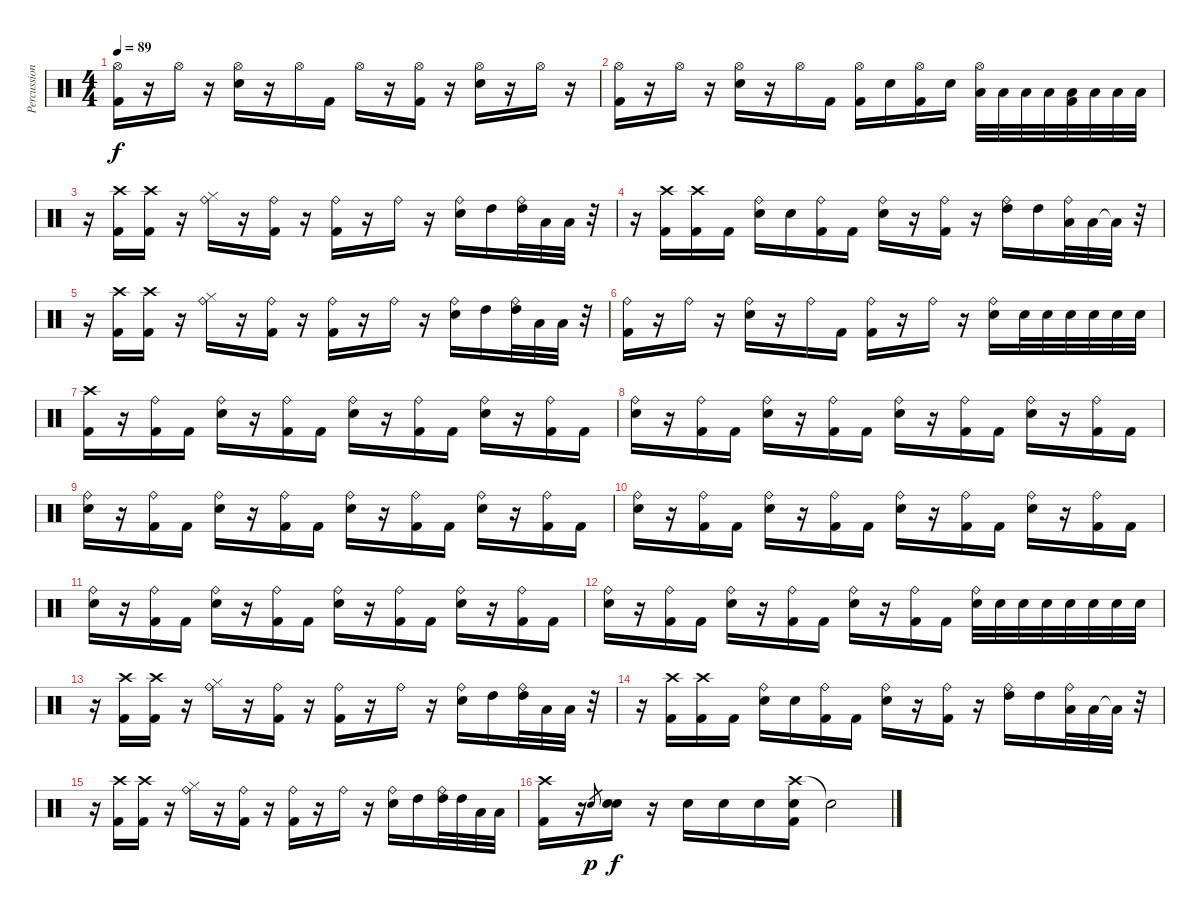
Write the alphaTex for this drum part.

\track ("Percussion" "Percussion") {instrument percussion}
\staff {score}
\articulation defaults
\ts (4 4)
\tempo 89
\clef neutral
\ks c
("Kick (hit) 2" "Hi-Hat (open)").16{dy f} r.16 "Hi-Hat (open)".16 r.16 ("Snare (hit) 2" "Hi-Hat (open)").16 r.16 "Hi-Hat (open)".16 "Kick (hit) 2".16 "Hi-Hat (open)".16 r.16 ("Kick (hit) 2" "Hi-Hat (open)").16 r.16 ("Snare (hit) 2" "Hi-Hat (open)").16 r.16 "Hi-Hat (open)".16 r.16 |
("Kick (hit) 2" "Hi-Hat (open)").16 r.16 "Hi-Hat (open)".16 r.16 ("Snare (hit) 2" "Hi-Hat (open)").16 r.16 "Hi-Hat (open)".16 "Kick (hit) 2".16 ("Kick (hit) 2" "Hi-Hat (open)").16 "Snare (hit) 2".16 ("Kick (hit) 2" "Hi-Hat (open)").16 "Snare (hit) 2".16 ("Low Floor Tom (hit)" "Hi-Hat (open)").32 "Low Floor Tom (hit)".32 "Low Floor Tom (hit)".32 "Low Floor Tom (hit)".32 ("Low Floor Tom (hit)" "Kick (hit) 2").32 "Low Floor Tom (hit)".32 "Low Floor Tom (hit)".32 "Low Floor Tom (hit)".32 |
r.16 ("Kick (hit) 2" "Crash high (hit)").16 ("Kick (hit) 2" "Crash high (hit)").16 r.16 ("Ride (bell)" "Hi-Hat (closed)").16 r.16 ("Ride (bell)" "Kick (hit) 2").16 r.16 ("Ride (bell)" "Kick (hit) 2").16 r.16 "Ride (bell)".16 r.16 ("Ride (bell)" "Snare (hit) 2").16 "High Tom (hit)".16 ("Ride (bell)" "High Tom (hit)").32 "Low Tom (hit)".32 "Low Tom (hit)".32 r.32 |
r.16 ("Kick (hit) 2" "Crash high (hit)").16 ("Kick (hit) 2" "Crash high (hit)").16 "Kick (hit) 2".16 ("Ride (bell)" "Snare (hit) 2").16 "Snare (hit) 2".16 ("Ride (bell)" "Kick (hit) 2").16 "Kick (hit) 2".16 ("Ride (bell)" "Snare (hit) 2").16 r.16 ("Ride (bell)" "Kick (hit) 2").16 r.16 ("Ride (bell)" "High Tom (hit)").16 "High Tom (hit)".16 ("Ride (bell)" "Low Tom (hit)").32 "Low Tom (hit)".32 "Low Tom (hit)"{t}.32 r.32 |
r.16 ("Kick (hit) 2" "Crash high (hit)").16 ("Kick (hit) 2" "Crash high (hit)").16 r.16 ("Ride (bell)" "Hi-Hat (closed)").16 r.16 ("Ride (bell)" "Kick (hit) 2").16 r.16 ("Ride (bell)" "Kick (hit) 2").16 r.16 "Ride (bell)".16 r.16 ("Ride (bell)" "Snare (hit) 2").16 "High Tom (hit)".16 ("Ride (bell)" "High Tom (hit)").32 "Low Tom (hit)".32 "Low Tom (hit)".32 r.32 |
("Ride (bell)" "Kick (hit) 2").16 r.16 "Ride (bell)".16 r.16 ("Ride (bell)" "Snare (hit) 2").16 r.16 "Ride (bell)".16 "Kick (hit) 2".16 ("Ride (bell)" "Kick (hit) 2").16 r.16 "Ride (bell)".16 r.16 ("Ride (bell)" "Snare (hit) 2").16 "Snare (hit) 2".32 "Snare (hit) 2".32 "Snare (hit) 2".32 "Snare (hit) 2".32 "Snare (hit) 2".32 "Snare (hit) 2".32 |
("Crash high (hit)" "Kick (hit) 2").16 r.16 ("Kick (hit) 2" "Ride (bell)").16 "Kick (hit) 2".16 ("Snare (hit) 2" "Ride (bell)").16 r.16 ("Kick (hit) 2" "Ride (bell)").16 "Kick (hit) 2".16 ("Snare (hit) 2" "Ride (bell)").16 r.16 ("Kick (hit) 2" "Ride (bell)").16 "Kick (hit) 2".16 ("Snare (hit) 2" "Ride (bell)").16 r.16 ("Kick (hit) 2" "Ride (bell)").16 "Kick (hit) 2".16 |
("Snare (hit) 2" "Ride (bell)").16 r.16 ("Kick (hit) 2" "Ride (bell)").16 "Kick (hit) 2".16 ("Snare (hit) 2" "Ride (bell)").16 r.16 ("Kick (hit) 2" "Ride (bell)").16 "Kick (hit) 2".16 ("Snare (hit) 2" "Ride (bell)").16 r.16 ("Kick (hit) 2" "Ride (bell)").16 "Kick (hit) 2".16 ("Snare (hit) 2" "Ride (bell)").16 r.16 ("Kick (hit) 2" "Ride (bell)").16 "Kick (hit) 2".16 |
("Snare (hit) 2" "Ride (bell)").16 r.16 ("Kick (hit) 2" "Ride (bell)").16 "Kick (hit) 2".16 ("Snare (hit) 2" "Ride (bell)").16 r.16 ("Kick (hit) 2" "Ride (bell)").16 "Kick (hit) 2".16 ("Snare (hit) 2" "Ride (bell)").16 r.16 ("Kick (hit) 2" "Ride (bell)").16 "Kick (hit) 2".16 ("Snare (hit) 2" "Ride (bell)").16 r.16 ("Kick (hit) 2" "Ride (bell)").16 "Kick (hit) 2".16 |
("Snare (hit) 2" "Ride (bell)").16 r.16 ("Kick (hit) 2" "Ride (bell)").16 "Kick (hit) 2".16 ("Snare (hit) 2" "Ride (bell)").16 r.16 ("Kick (hit) 2" "Ride (bell)").16 "Kick (hit) 2".16 ("Snare (hit) 2" "Ride (bell)").16 r.16 ("Kick (hit) 2" "Ride (bell)").16 "Kick (hit) 2".16 ("Snare (hit) 2" "Ride (bell)").16 r.16 ("Kick (hit) 2" "Ride (bell)").16 "Kick (hit) 2".16 |
("Snare (hit) 2" "Ride (bell)").16 r.16 ("Kick (hit) 2" "Ride (bell)").16 "Kick (hit) 2".16 ("Snare (hit) 2" "Ride (bell)").16 r.16 ("Kick (hit) 2" "Ride (bell)").16 "Kick (hit) 2".16 ("Snare (hit) 2" "Ride (bell)").16 r.16 ("Kick (hit) 2" "Ride (bell)").16 "Kick (hit) 2".16 ("Snare (hit) 2" "Ride (bell)").16 r.16 ("Kick (hit) 2" "Ride (bell)").16 "Kick (hit) 2".16 |
("Snare (hit) 2" "Ride (bell)").16 r.16 ("Kick (hit) 2" "Ride (bell)").16 "Kick (hit) 2".16 ("Snare (hit) 2" "Ride (bell)").16 r.16 ("Kick (hit) 2" "Ride (bell)").16 "Kick (hit) 2".16 ("Snare (hit) 2" "Ride (bell)").16 r.16 ("Kick (hit) 2" "Ride (bell)").16 "Kick (hit) 2".16 ("Snare (hit) 2" "Ride (bell)").32 "Snare (hit) 2".32 "Snare (hit) 2".32 "Snare (hit) 2".32 "Snare (hit) 2".32 "Snare (hit) 2".32 "Snare (hit) 2".32 "Snare (hit) 2".32 |
r.16 ("Kick (hit) 2" "Crash high (hit)").16 ("Kick (hit) 2" "Crash high (hit)").16 r.16 ("Ride (bell)" "Hi-Hat (closed)").16 r.16 ("Ride (bell)" "Kick (hit) 2").16 r.16 ("Ride (bell)" "Kick (hit) 2").16 r.16 "Ride (bell)".16 r.16 ("Ride (bell)" "Snare (hit) 2").16 "High Tom (hit)".16 ("Ride (bell)" "High Tom (hit)").32 "Low Tom (hit)".32 "Low Tom (hit)".32 r.32 |
r.16 ("Kick (hit) 2" "Crash high (hit)").16 ("Kick (hit) 2" "Crash high (hit)").16 "Kick (hit) 2".16 ("Ride (bell)" "Snare (hit) 2").16 "Snare (hit) 2".16 ("Ride (bell)" "Kick (hit) 2").16 "Kick (hit) 2".16 ("Ride (bell)" "Snare (hit) 2").16 r.16 ("Ride (bell)" "Kick (hit) 2").16 r.16 ("Ride (bell)" "High Tom (hit)").16 "High Tom (hit)".16 ("Ride (bell)" "Low Tom (hit)").32 "Low Tom (hit)".32 "Low Tom (hit)"{t}.32 r.32 |
r.16 ("Kick (hit) 2" "Crash high (hit)").16 ("Kick (hit) 2" "Crash high (hit)").16 r.16 ("Ride (bell)" "Hi-Hat (closed)").16 r.16 ("Ride (bell)" "Kick (hit) 2").16 r.16 ("Ride (bell)" "Kick (hit) 2").16 r.16 "Ride (bell)".16 r.16 ("Ride (bell)" "Snare (hit) 2").16 "High Tom (hit)".16 ("Ride (bell)" "High Tom (hit)").32 "High Tom (hit)".32 "Low Tom (hit)".32 "Low Tom (hit)".32 |
("Crash high (hit)" "Kick (hit) 2").16 r.16 "Snare (hit) 2".8{gr dy p} ("Snare (hit) 2" "Snare (hit) 2").16{dy f} r.16 "Snare (hit) 2".16 "Snare (hit) 2".16 "Snare (hit) 2".16 ("Crash high (hit)" "Snare (hit) 2" "Kick (hit) 2").16 "Snare (hit)"{t}.2
